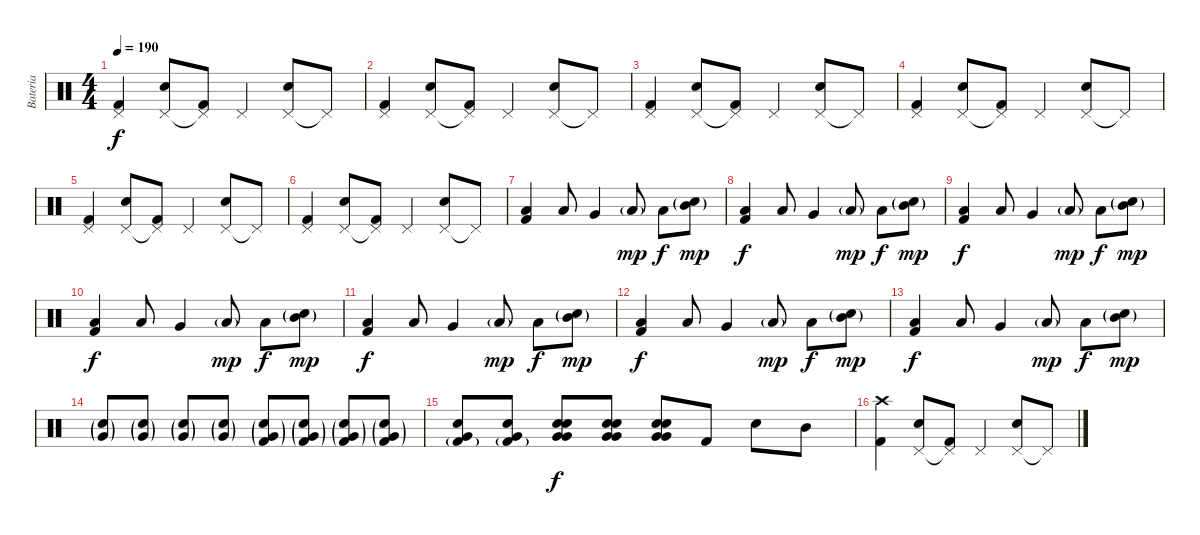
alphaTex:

\track ("Bateria" "Bateria") {instrument percussion}
\staff {score}
\articulation defaults
\ts (4 4)
\tempo 190
\clef neutral
\ks c
("Pedal Hi-Hat (hit)" "Kick (hit) 2").4{dy f} ("Pedal Hi-Hat (hit)" "Snare (hit) 2").8 ("Pedal Hi-Hat (hit)"{t} "Kick (hit) 2").8 "Pedal Hi-Hat (hit)".4 ("Pedal Hi-Hat (hit)" "Snare (hit) 2").8 "Pedal Hi-Hat (hit)"{t}.8 |
("Pedal Hi-Hat (hit)" "Kick (hit) 2").4 ("Pedal Hi-Hat (hit)" "Snare (hit) 2").8 ("Pedal Hi-Hat (hit)"{t} "Kick (hit) 2").8 "Pedal Hi-Hat (hit)".4 ("Pedal Hi-Hat (hit)" "Snare (hit) 2").8 "Pedal Hi-Hat (hit)"{t}.8 |
("Pedal Hi-Hat (hit)" "Kick (hit) 2").4 ("Pedal Hi-Hat (hit)" "Snare (hit) 2").8 ("Pedal Hi-Hat (hit)"{t} "Kick (hit) 2").8 "Pedal Hi-Hat (hit)".4 ("Pedal Hi-Hat (hit)" "Snare (hit) 2").8 "Pedal Hi-Hat (hit)"{t}.8 |
("Pedal Hi-Hat (hit)" "Kick (hit) 2").4 ("Pedal Hi-Hat (hit)" "Snare (hit) 2").8 ("Pedal Hi-Hat (hit)"{t} "Kick (hit) 2").8 "Pedal Hi-Hat (hit)".4 ("Pedal Hi-Hat (hit)" "Snare (hit) 2").8 "Pedal Hi-Hat (hit)"{t}.8 |
("Pedal Hi-Hat (hit)" "Kick (hit) 2").4 ("Pedal Hi-Hat (hit)" "Snare (hit) 2").8 ("Pedal Hi-Hat (hit)"{t} "Kick (hit) 2").8 "Pedal Hi-Hat (hit)".4 ("Pedal Hi-Hat (hit)" "Snare (hit) 2").8 "Pedal Hi-Hat (hit)"{t}.8 |
("Pedal Hi-Hat (hit)" "Kick (hit) 2").4 ("Pedal Hi-Hat (hit)" "Snare (hit) 2").8 ("Pedal Hi-Hat (hit)"{t} "Kick (hit) 2").8 "Pedal Hi-Hat (hit)".4 ("Pedal Hi-Hat (hit)" "Snare (hit) 2").8 "Pedal Hi-Hat (hit)"{t}.8 |
("Low Tom (hit)" "Kick (hit) 2").4 "Low Tom (hit)".8 "Very Low Tom (hit)".4 "Low Tom (hit)"{g}.8{dy mp} "Low Tom (hit)".8{dy f} ("Mid Tom (hit)"{g} "Snare (hit) 2"{g}).8{dy mp} |
("Low Tom (hit)" "Kick (hit) 2").4{dy f} "Low Tom (hit)".8 "Very Low Tom (hit)".4 "Low Tom (hit)"{g}.8{dy mp} "Low Tom (hit)".8{dy f} ("Mid Tom (hit)"{g} "Snare (hit) 2"{g}).8{dy mp} |
("Low Tom (hit)" "Kick (hit) 2").4{dy f} "Low Tom (hit)".8 "Very Low Tom (hit)".4 "Low Tom (hit)"{g}.8{dy mp} "Low Tom (hit)".8{dy f} ("Mid Tom (hit)"{g} "Snare (hit) 2"{g}).8{dy mp} |
("Low Tom (hit)" "Kick (hit) 2").4{dy f} "Low Tom (hit)".8 "Very Low Tom (hit)".4 "Low Tom (hit)"{g}.8{dy mp} "Low Tom (hit)".8{dy f} ("Mid Tom (hit)"{g} "Snare (hit) 2"{g}).8{dy mp} |
("Low Tom (hit)" "Kick (hit) 2").4{dy f} "Low Tom (hit)".8 "Very Low Tom (hit)".4 "Low Tom (hit)"{g}.8{dy mp} "Low Tom (hit)".8{dy f} ("Mid Tom (hit)"{g} "Snare (hit) 2"{g}).8{dy mp} |
("Low Tom (hit)" "Kick (hit) 2").4{dy f} "Low Tom (hit)".8 "Very Low Tom (hit)".4 "Low Tom (hit)"{g}.8{dy mp} "Low Tom (hit)".8{dy f} ("Mid Tom (hit)"{g} "Snare (hit) 2"{g}).8{dy mp} |
("Low Tom (hit)" "Kick (hit) 2").4{dy f} "Low Tom (hit)".8 "Very Low Tom (hit)".4 "Low Tom (hit)"{g}.8{dy mp} "Low Tom (hit)".8{dy f} ("Mid Tom (hit)"{g} "Snare (hit) 2"{g}).8{dy mp} |
("Very Low Tom (hit)"{g} "Snare (hit) 2"{g}).8 ("Very Low Tom (hit)"{g} "Snare (hit) 2"{g}).8 ("Very Low Tom (hit)"{g} "Snare (hit) 2"{g}).8 ("Very Low Tom (hit)"{g} "Snare (hit) 2"{g}).8 ("Very Low Tom (hit)"{g} "Snare (hit) 2"{g} "Kick (hit) 2"{g}).8 ("Very Low Tom (hit)"{g} "Snare (hit) 2"{g} "Kick (hit) 2"{g}).8 ("Very Low Tom (hit)"{g} "Snare (hit) 2"{g} "Kick (hit) 2"{g}).8 ("Very Low Tom (hit)"{g} "Snare (hit) 2"{g} "Kick (hit) 2"{g}).8 |
("Very Low Tom (hit)" "Snare (hit) 2" "Kick (hit) 2"{g}).8 ("Very Low Tom (hit)" "Snare (hit) 2" "Kick (hit) 2"{g}).8 ("Very Low Tom (hit)" "Very Low Tom (hit)" "Snare (hit) 2" "Snare (hit) 2").8{dy f} ("Very Low Tom (hit)" "Very Low Tom (hit)" "Snare (hit) 2" "Snare (hit) 2").8 ("Very Low Tom (hit)" "Very Low Tom (hit)" "Snare (hit) 2" "Snare (hit) 2").8 "Kick (hit) 2".8 "Snare (hit) 2".8 "Mid Tom (hit)".8 |
("Crash high (hit)" "Kick (hit) 2").4 ("Pedal Hi-Hat (hit)" "Snare (hit) 2").8 ("Pedal Hi-Hat (hit)"{t} "Kick (hit) 2").8 "Pedal Hi-Hat (hit)".4 ("Pedal Hi-Hat (hit)" "Snare (hit) 2").8 "Pedal Hi-Hat (hit)"{t}.8
